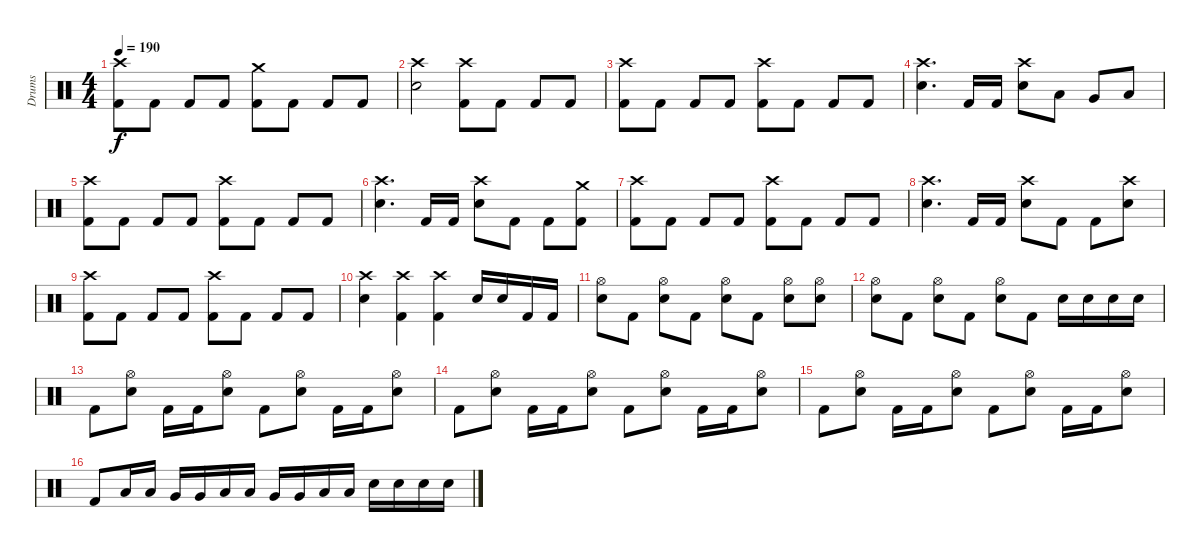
\track ("Drums" "Drums") {instrument percussion}
\staff {score}
\articulation defaults
\ts (4 4)
\tempo 190
\clef neutral
\ks c
("Crash high (hit)" "Kick (hit) 2").8{dy f} "Kick (hit) 2".8 "Kick (hit) 2".8 "Kick (hit) 2".8 ("Crash medium (hit)" "Kick (hit) 2").8 "Kick (hit) 2".8 "Kick (hit) 2".8 "Kick (hit) 2".8 |
("Crash high (hit)" "Electric Snare (hit)").2 ("Crash high (hit)" "Kick (hit) 2").8 "Kick (hit) 2".8 "Kick (hit) 2".8 "Kick (hit) 2".8 |
("Crash high (hit)" "Kick (hit) 2").8 "Kick (hit) 2".8 "Kick (hit) 2".8 "Kick (hit) 2".8 ("Crash high (hit)" "Kick (hit) 2").8 "Kick (hit) 2".8 "Kick (hit) 2".8 "Kick (hit) 2".8 |
("Crash high (hit)" "Electric Snare (hit)").4{d} "Kick (hit) 2".16 "Kick (hit) 2".16 ("Crash high (hit)" "Electric Snare (hit)").8 "Low Tom (hit)".8 "Very Low Tom (hit)".8 "Low Floor Tom (hit)".8 |
("Crash high (hit)" "Kick (hit) 2").8 "Kick (hit) 2".8 "Kick (hit) 2".8 "Kick (hit) 2".8 ("Crash high (hit)" "Kick (hit) 2").8 "Kick (hit) 2".8 "Kick (hit) 2".8 "Kick (hit) 2".8 |
("Crash high (hit)" "Electric Snare (hit)").4{d} "Kick (hit) 2".16 "Kick (hit) 2".16 ("Crash high (hit)" "Electric Snare (hit)").8 "Kick (hit) 2".8 "Kick (hit) 2".8 ("Crash medium (hit)" "Kick (hit) 2").8 |
("Crash high (hit)" "Kick (hit) 2").8 "Kick (hit) 2".8 "Kick (hit) 2".8 "Kick (hit) 2".8 ("Crash high (hit)" "Kick (hit) 2").8 "Kick (hit) 2".8 "Kick (hit) 2".8 "Kick (hit) 2".8 |
("Crash high (hit)" "Electric Snare (hit)").4{d} "Kick (hit) 2".16 "Kick (hit) 2".16 ("Crash high (hit)" "Electric Snare (hit)").8 "Kick (hit) 2".8 "Kick (hit) 2".8 ("Crash high (hit)" "Electric Snare (hit)").8 |
("Crash high (hit)" "Kick (hit) 2").8 "Kick (hit) 2".8 "Kick (hit) 2".8 "Kick (hit) 2".8 ("Crash high (hit)" "Kick (hit) 2").8 "Kick (hit) 2".8 "Kick (hit) 2".8 "Kick (hit) 2".8 |
("Crash high (hit)" "Electric Snare (hit)").4 ("Crash high (hit)" "Kick (hit) 2").4 ("Crash high (hit)" "Kick (hit) 2").4 "Electric Snare (hit)".16 "Electric Snare (hit)".16 "Kick (hit) 2".16 "Kick (hit) 2".16 |
("Hi-Hat (open)" "Electric Snare (hit)").8 "Kick (hit) 2".8 ("Hi-Hat (open)" "Electric Snare (hit)").8 "Kick (hit) 2".8 ("Hi-Hat (open)" "Electric Snare (hit)").8 "Kick (hit) 2".8 ("Hi-Hat (open)" "Electric Snare (hit)").8 ("Hi-Hat (open)" "Electric Snare (hit)").8 |
("Hi-Hat (open)" "Electric Snare (hit)").8 "Kick (hit) 2".8 ("Hi-Hat (open)" "Electric Snare (hit)").8 "Kick (hit) 2".8 ("Hi-Hat (open)" "Electric Snare (hit)").8 "Kick (hit) 2".8 "Electric Snare (hit)".16 "Electric Snare (hit)".16 "Electric Snare (hit)".16 "Electric Snare (hit)".16 |
"Kick (hit) 2".8 ("Hi-Hat (open)" "Electric Snare (hit)").8 "Kick (hit) 2".16 "Kick (hit) 2".16 ("Hi-Hat (open)" "Electric Snare (hit)").8 "Kick (hit) 2".8 ("Hi-Hat (open)" "Electric Snare (hit)").8 "Kick (hit) 2".16 "Kick (hit) 2".16 ("Hi-Hat (open)" "Electric Snare (hit)").8 |
"Kick (hit) 2".8 ("Hi-Hat (open)" "Electric Snare (hit)").8 "Kick (hit) 2".16 "Kick (hit) 2".16 ("Hi-Hat (open)" "Electric Snare (hit)").8 "Kick (hit) 2".8 ("Hi-Hat (open)" "Electric Snare (hit)").8 "Kick (hit) 2".16 "Kick (hit) 2".16 ("Hi-Hat (open)" "Electric Snare (hit)").8 |
"Kick (hit) 2".8 ("Hi-Hat (open)" "Electric Snare (hit)").8 "Kick (hit) 2".16 "Kick (hit) 2".16 ("Hi-Hat (open)" "Electric Snare (hit)").8 "Kick (hit) 2".8 ("Hi-Hat (open)" "Electric Snare (hit)").8 "Kick (hit) 2".16 "Kick (hit) 2".16 ("Hi-Hat (open)" "Electric Snare (hit)").8 |
"Kick (hit) 2".8 "Low Tom (hit)".16 "Low Tom (hit)".16 "Very Low Tom (hit)".16 "Very Low Tom (hit)".16 "Low Floor Tom (hit)".16 "Low Floor Tom (hit)".16 "Very Low Tom (hit)".16 "Very Low Tom (hit)".16 "Low Floor Tom (hit)".16 "Low Floor Tom (hit)".16 "Electric Snare (hit)".16 "Electric Snare (hit)".16 "Electric Snare (hit)".16 "Electric Snare (hit)".16
